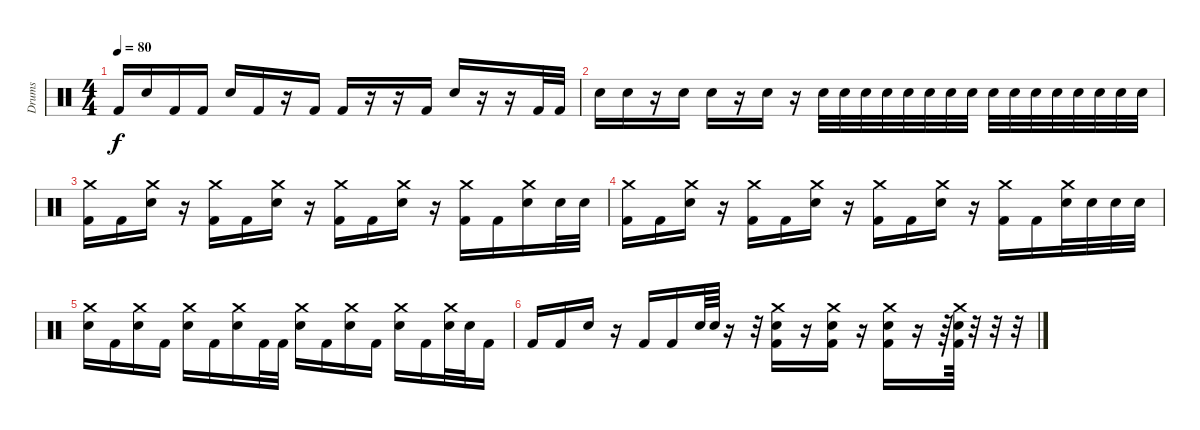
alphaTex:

\track ("Drums" "Drums") {instrument percussion}
\staff {score}
\articulation defaults
\ts (4 4)
\tempo 80
\clef neutral
\ks c "Kick (hit) 2".16{dy f} "Snare (hit) 2".16 "Kick (hit) 2".16 "Kick (hit) 2".16 "Snare (hit) 2".16 "Kick (hit) 2".16
r.16 "Kick (hit) 2".16 "Kick (hit) 2".16 r.16 r.16 "Kick (hit) 2".16 "Snare (hit) 2".16 r.16 r.16 "Kick (hit) 2".32 "Kick (hit) 2".32 |
"Snare (hit) 2".16 "Snare (hit) 2".16 r.16 "Snare (hit) 2".16 "Snare (hit) 2".16 r.16 "Snare (hit) 2".16 r.16 "Snare (hit) 2".32 "Snare (hit) 2".32 "Snare (hit) 2".32 "Snare (hit) 2".32 "Snare (hit) 2".32 "Snare (hit) 2".32 "Snare (hit) 2".32 "Snare (hit) 2".32 "Snare (hit) 2".32 "Snare (hit) 2".32 "Snare (hit) 2".32 "Snare (hit) 2".32 "Snare (hit) 2".32 "Snare (hit) 2".32 "Snare (hit) 2".32 "Snare (hit) 2".32 |
("Crash medium (hit)" "Kick (hit) 2").16 "Kick (hit) 2".16 ("Crash medium (hit)" "Snare (hit) 2").16 r.16 ("Crash medium (hit)" "Kick (hit) 2").16 "Kick (hit) 2".16 ("Crash medium (hit)" "Snare (hit) 2").16 r.16 ("Crash medium (hit)" "Kick (hit) 2").16 "Kick (hit) 2".16 ("Crash medium (hit)" "Snare (hit) 2").16 r.16 ("Crash medium (hit)" "Kick (hit) 2").16 "Kick (hit) 2".16 ("Crash medium (hit)" "Snare (hit) 2").16 "Snare (hit) 2".32 "Snare (hit) 2".32 |
("Crash medium (hit)" "Kick (hit) 2").16 "Kick (hit) 2".16 ("Crash medium (hit)" "Snare (hit) 2").16 r.16 ("Crash medium (hit)" "Kick (hit) 2").16 "Kick (hit) 2".16 ("Crash medium (hit)" "Snare (hit) 2").16 r.16 ("Crash medium (hit)" "Kick (hit) 2").16 "Kick (hit) 2".16 ("Crash medium (hit)" "Snare (hit) 2").16 r.16 ("Crash medium (hit)" "Kick (hit) 2").16 "Kick (hit) 2".16 ("Crash medium (hit)" "Snare (hit) 2").32 "Snare (hit) 2".32 "Snare (hit) 2".32 "Snare (hit) 2".32 |
("Crash medium (hit)" "Snare (hit) 2").16 "Kick (hit) 2".16 ("Crash medium (hit)" "Snare (hit) 2").16 "Kick (hit) 2".16 ("Crash medium (hit)" "Snare (hit) 2").16 "Kick (hit) 2".16 ("Crash medium (hit)" "Snare (hit) 2").16 "Kick (hit) 2".32 "Kick (hit) 2".32 ("Crash medium (hit)" "Snare (hit) 2").16 "Kick (hit) 2".16 ("Crash medium (hit)" "Snare (hit) 2").16 "Kick (hit) 2".16 ("Crash medium (hit)" "Snare (hit) 2").16 "Kick (hit) 2".16 ("Crash medium (hit)" "Snare (hit) 2").32 "Snare (hit) 2".32 "Kick (hit) 2".16 |
"Kick (hit) 2".16 "Kick (hit) 2".16 "Snare (hit) 2".16 r.16 "Kick (hit) 2".16 "Kick (hit) 2".16 "Snare (hit) 2".64 "Snare (hit) 2".64 r.16 r.32 ("Crash medium (hit)" "Snare (hit) 2" "Kick (hit) 2").16 r.16 ("Crash medium (hit)" "Snare (hit) 2" "Kick (hit) 2").16 r.16 ("Crash medium (hit)" "Snare (hit) 2" "Kick (hit) 2").16 r.16 r.64 ("Crash medium (hit)" "Snare (hit) 2" "Kick (hit) 2").64 r.32 r.32 r.32
